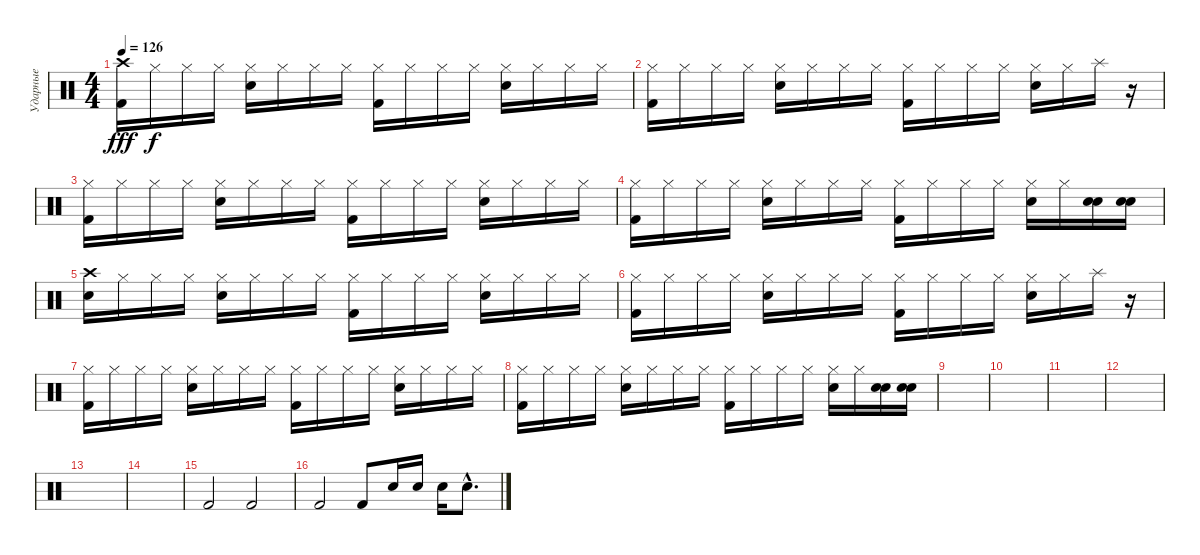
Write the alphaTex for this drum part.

\track ("Ударные" "Ударные") {instrument percussion}
\staff {score}
\articulation defaults
\ts (4 4)
\tempo 126
\clef neutral
\ks c
("Crash high (hit)" "Kick (hit) 2").16{dy fff balance 8} "Hi-Hat (closed)".16{dy f} "Hi-Hat (closed)".16 "Hi-Hat (closed)".16 ("Hi-Hat (closed)" "Snare (hit) 2").16 "Hi-Hat (closed)".16 "Hi-Hat (closed)".16 "Hi-Hat (closed)".16 ("Hi-Hat (closed)" "Kick (hit) 2").16 "Hi-Hat (closed)".16 "Hi-Hat (closed)".16 "Hi-Hat (closed)".16 ("Hi-Hat (closed)" "Snare (hit) 2").16 "Hi-Hat (closed)".16 "Hi-Hat (closed)".16 "Hi-Hat (closed)".16 |
("Hi-Hat (closed)" "Kick (hit) 2").16 "Hi-Hat (closed)".16 "Hi-Hat (closed)".16 "Hi-Hat (closed)".16 ("Hi-Hat (closed)" "Snare (hit) 2").16 "Hi-Hat (closed)".16 "Hi-Hat (closed)".16 "Hi-Hat (closed)".16 ("Hi-Hat (closed)" "Kick (hit) 2").16 "Hi-Hat (closed)".16 "Hi-Hat (closed)".16 "Hi-Hat (closed)".16 ("Hi-Hat (closed)" "Snare (hit) 2").16 "Hi-Hat (closed)".16 "Splash (hit)".16 r.16 |
("Hi-Hat (closed)" "Kick (hit) 2").16 "Hi-Hat (closed)".16 "Hi-Hat (closed)".16 "Hi-Hat (closed)".16 ("Hi-Hat (closed)" "Snare (hit) 2").16 "Hi-Hat (closed)".16 "Hi-Hat (closed)".16 "Hi-Hat (closed)".16 ("Hi-Hat (closed)" "Kick (hit) 2").16 "Hi-Hat (closed)".16 "Hi-Hat (closed)".16 "Hi-Hat (closed)".16 ("Hi-Hat (closed)" "Snare (hit) 2").16 "Hi-Hat (closed)".16 "Hi-Hat (closed)".16 "Hi-Hat (closed)".16 |
("Hi-Hat (closed)" "Kick (hit) 2").16 "Hi-Hat (closed)".16 "Hi-Hat (closed)".16 "Hi-Hat (closed)".16 ("Hi-Hat (closed)" "Snare (hit) 2").16 "Hi-Hat (closed)".16 "Hi-Hat (closed)".16 "Hi-Hat (closed)".16 ("Hi-Hat (closed)" "Kick (hit) 2").16 "Hi-Hat (closed)".16 "Hi-Hat (closed)".16 "Hi-Hat (closed)".16 ("Hi-Hat (closed)" "Snare (hit) 2").16 "Hi-Hat (closed)".16 ("Snare (hit) 2" "Electric Snare (hit)").16{balance 0} ("Snare (hit) 2" "Electric Snare (hit)").16 |
("Snare (hit) 2" "Crash high (hit)").16{balance 8} "Hi-Hat (closed)".16 "Hi-Hat (closed)".16 "Hi-Hat (closed)".16 ("Hi-Hat (closed)" "Snare (hit) 2").16 "Hi-Hat (closed)".16 "Hi-Hat (closed)".16 "Hi-Hat (closed)".16 ("Hi-Hat (closed)" "Kick (hit) 2").16 "Hi-Hat (closed)".16 "Hi-Hat (closed)".16 "Hi-Hat (closed)".16 ("Hi-Hat (closed)" "Snare (hit) 2").16 "Hi-Hat (closed)".16 "Hi-Hat (closed)".16 "Hi-Hat (closed)".16 |
("Hi-Hat (closed)" "Kick (hit) 2").16 "Hi-Hat (closed)".16 "Hi-Hat (closed)".16 "Hi-Hat (closed)".16 ("Hi-Hat (closed)" "Snare (hit) 2").16 "Hi-Hat (closed)".16 "Hi-Hat (closed)".16 "Hi-Hat (closed)".16 ("Hi-Hat (closed)" "Kick (hit) 2").16 "Hi-Hat (closed)".16 "Hi-Hat (closed)".16 "Hi-Hat (closed)".16 ("Hi-Hat (closed)" "Snare (hit) 2").16 "Hi-Hat (closed)".16 "Splash (hit)".16 r.16 |
("Hi-Hat (closed)" "Kick (hit) 2").16 "Hi-Hat (closed)".16 "Hi-Hat (closed)".16 "Hi-Hat (closed)".16 ("Hi-Hat (closed)" "Snare (hit) 2").16 "Hi-Hat (closed)".16 "Hi-Hat (closed)".16 "Hi-Hat (closed)".16 ("Hi-Hat (closed)" "Kick (hit) 2").16 "Hi-Hat (closed)".16 "Hi-Hat (closed)".16 "Hi-Hat (closed)".16 ("Hi-Hat (closed)" "Snare (hit) 2").16 "Hi-Hat (closed)".16 "Hi-Hat (closed)".16 "Hi-Hat (closed)".16 |
("Hi-Hat (closed)" "Kick (hit) 2").16 "Hi-Hat (closed)".16 "Hi-Hat (closed)".16 "Hi-Hat (closed)".16 ("Hi-Hat (closed)" "Snare (hit) 2").16 "Hi-Hat (closed)".16 "Hi-Hat (closed)".16 "Hi-Hat (closed)".16 ("Hi-Hat (closed)" "Kick (hit) 2").16 "Hi-Hat (closed)".16 "Hi-Hat (closed)".16 "Hi-Hat (closed)".16 ("Hi-Hat (closed)" "Snare (hit) 2").16 "Hi-Hat (closed)".16 ("Snare (hit) 2" "Electric Snare (hit)").16 ("Snare (hit) 2" "Electric Snare (hit)").16 |
|
|
|
|
|
|
"Kick (hit) 2".2 "Kick (hit) 2".2 |
"Kick (hit) 2".2 "Kick (hit) 2".8 "Electric Snare (hit)".16 "Electric Snare (hit)".16 "Snare (hit) 2".16 "Electric Snare (hit)"{hac}.8{d}
